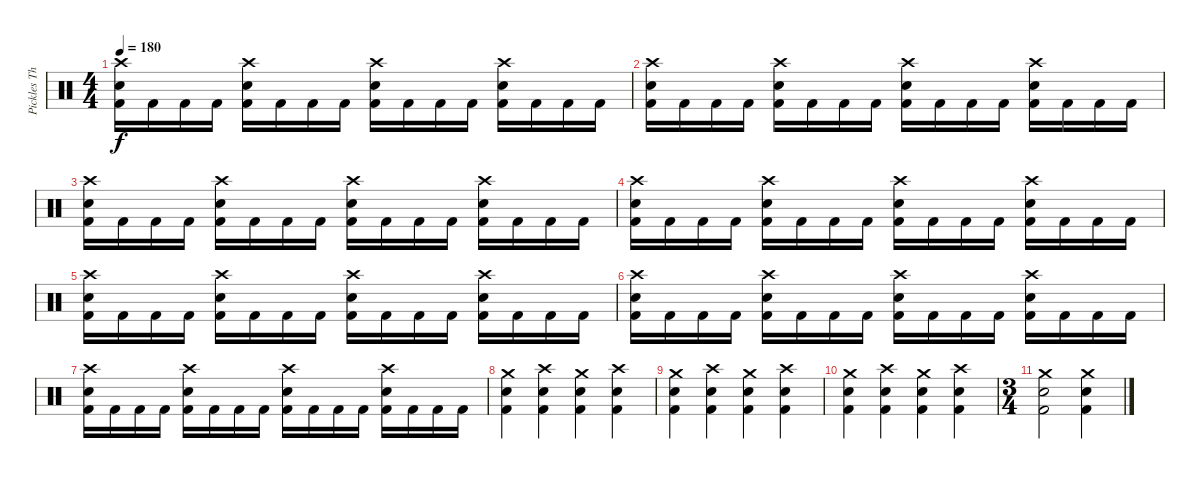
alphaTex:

\track ("Pickles The Drummer" "Pickles Th") {instrument percussion}
\staff {score}
\articulation defaults
\ts (4 4)
\tempo 180
\clef neutral
\ks c
("Crash high (hit)" "Kick (hit) 2" "Electric Snare (hit)").16{dy f} "Kick (hit) 2".16 "Kick (hit) 2".16 "Kick (hit) 2".16 ("Crash high (hit)" "Kick (hit) 2" "Electric Snare (hit)").16 "Kick (hit) 2".16 "Kick (hit) 2".16 "Kick (hit) 2".16 ("Crash high (hit)" "Kick (hit) 2" "Electric Snare (hit)").16 "Kick (hit) 2".16 "Kick (hit) 2".16 "Kick (hit) 2".16 ("Crash high (hit)" "Kick (hit) 2" "Electric Snare (hit)").16 "Kick (hit) 2".16 "Kick (hit) 2".16 "Kick (hit) 2".16 |
("Crash high (hit)" "Kick (hit) 2" "Electric Snare (hit)").16 "Kick (hit) 2".16 "Kick (hit) 2".16 "Kick (hit) 2".16 ("Crash high (hit)" "Kick (hit) 2" "Electric Snare (hit)").16 "Kick (hit) 2".16 "Kick (hit) 2".16 "Kick (hit) 2".16 ("Crash high (hit)" "Kick (hit) 2" "Electric Snare (hit)").16 "Kick (hit) 2".16 "Kick (hit) 2".16 "Kick (hit) 2".16 ("Crash high (hit)" "Kick (hit) 2" "Electric Snare (hit)").16 "Kick (hit) 2".16 "Kick (hit) 2".16 "Kick (hit) 2".16 |
("Crash high (hit)" "Kick (hit) 2" "Electric Snare (hit)").16 "Kick (hit) 2".16 "Kick (hit) 2".16 "Kick (hit) 2".16 ("Crash high (hit)" "Kick (hit) 2" "Electric Snare (hit)").16 "Kick (hit) 2".16 "Kick (hit) 2".16 "Kick (hit) 2".16 ("Crash high (hit)" "Kick (hit) 2" "Electric Snare (hit)").16 "Kick (hit) 2".16 "Kick (hit) 2".16 "Kick (hit) 2".16 ("Crash high (hit)" "Kick (hit) 2" "Electric Snare (hit)").16 "Kick (hit) 2".16 "Kick (hit) 2".16 "Kick (hit) 2".16 |
("Crash high (hit)" "Kick (hit) 2" "Electric Snare (hit)").16 "Kick (hit) 2".16 "Kick (hit) 2".16 "Kick (hit) 2".16 ("Crash high (hit)" "Kick (hit) 2" "Electric Snare (hit)").16 "Kick (hit) 2".16 "Kick (hit) 2".16 "Kick (hit) 2".16 ("Crash high (hit)" "Kick (hit) 2" "Electric Snare (hit)").16 "Kick (hit) 2".16 "Kick (hit) 2".16 "Kick (hit) 2".16 ("Crash high (hit)" "Kick (hit) 2" "Electric Snare (hit)").16 "Kick (hit) 2".16 "Kick (hit) 2".16 "Kick (hit) 2".16 |
("Crash high (hit)" "Kick (hit) 2" "Electric Snare (hit)").16 "Kick (hit) 2".16 "Kick (hit) 2".16 "Kick (hit) 2".16 ("Crash high (hit)" "Kick (hit) 2" "Electric Snare (hit)").16 "Kick (hit) 2".16 "Kick (hit) 2".16 "Kick (hit) 2".16 ("Crash high (hit)" "Kick (hit) 2" "Electric Snare (hit)").16 "Kick (hit) 2".16 "Kick (hit) 2".16 "Kick (hit) 2".16 ("Crash high (hit)" "Kick (hit) 2" "Electric Snare (hit)").16 "Kick (hit) 2".16 "Kick (hit) 2".16 "Kick (hit) 2".16 |
("Crash high (hit)" "Kick (hit) 2" "Electric Snare (hit)").16 "Kick (hit) 2".16 "Kick (hit) 2".16 "Kick (hit) 2".16 ("Crash high (hit)" "Kick (hit) 2" "Electric Snare (hit)").16 "Kick (hit) 2".16 "Kick (hit) 2".16 "Kick (hit) 2".16 ("Crash high (hit)" "Kick (hit) 2" "Electric Snare (hit)").16 "Kick (hit) 2".16 "Kick (hit) 2".16 "Kick (hit) 2".16 ("Crash high (hit)" "Kick (hit) 2" "Electric Snare (hit)").16 "Kick (hit) 2".16 "Kick (hit) 2".16 "Kick (hit) 2".16 |
("Crash high (hit)" "Kick (hit) 2" "Electric Snare (hit)").16 "Kick (hit) 2".16 "Kick (hit) 2".16 "Kick (hit) 2".16 ("Crash high (hit)" "Kick (hit) 2" "Electric Snare (hit)").16 "Kick (hit) 2".16 "Kick (hit) 2".16 "Kick (hit) 2".16 ("Crash high (hit)" "Kick (hit) 2" "Electric Snare (hit)").16 "Kick (hit) 2".16 "Kick (hit) 2".16 "Kick (hit) 2".16 ("Crash high (hit)" "Kick (hit) 2" "Electric Snare (hit)").16 "Kick (hit) 2".16 "Kick (hit) 2".16 "Kick (hit) 2".16 |
("Crash medium (hit)" "Kick (hit) 2" "Electric Snare (hit)").4 ("Crash high (hit)" "Kick (hit) 2" "Electric Snare (hit)").4 ("Crash medium (hit)" "Kick (hit) 2" "Electric Snare (hit)").4 ("Crash high (hit)" "Kick (hit) 2" "Electric Snare (hit)").4 |
("Crash medium (hit)" "Kick (hit) 2" "Electric Snare (hit)").4 ("Crash high (hit)" "Kick (hit) 2" "Electric Snare (hit)").4 ("Crash medium (hit)" "Kick (hit) 2" "Electric Snare (hit)").4 ("Crash high (hit)" "Kick (hit) 2" "Electric Snare (hit)").4 |
("Crash medium (hit)" "Kick (hit) 2" "Electric Snare (hit)").4 ("Crash high (hit)" "Kick (hit) 2" "Electric Snare (hit)").4 ("Crash medium (hit)" "Kick (hit) 2" "Electric Snare (hit)").4 ("Crash high (hit)" "Kick (hit) 2" "Electric Snare (hit)").4 |
\ts (3 4)
("Crash medium (hit)" "Kick (hit) 2" "Electric Snare (hit)").2 ("Crash medium (hit)" "Kick (hit) 2" "Electric Snare (hit)").4
